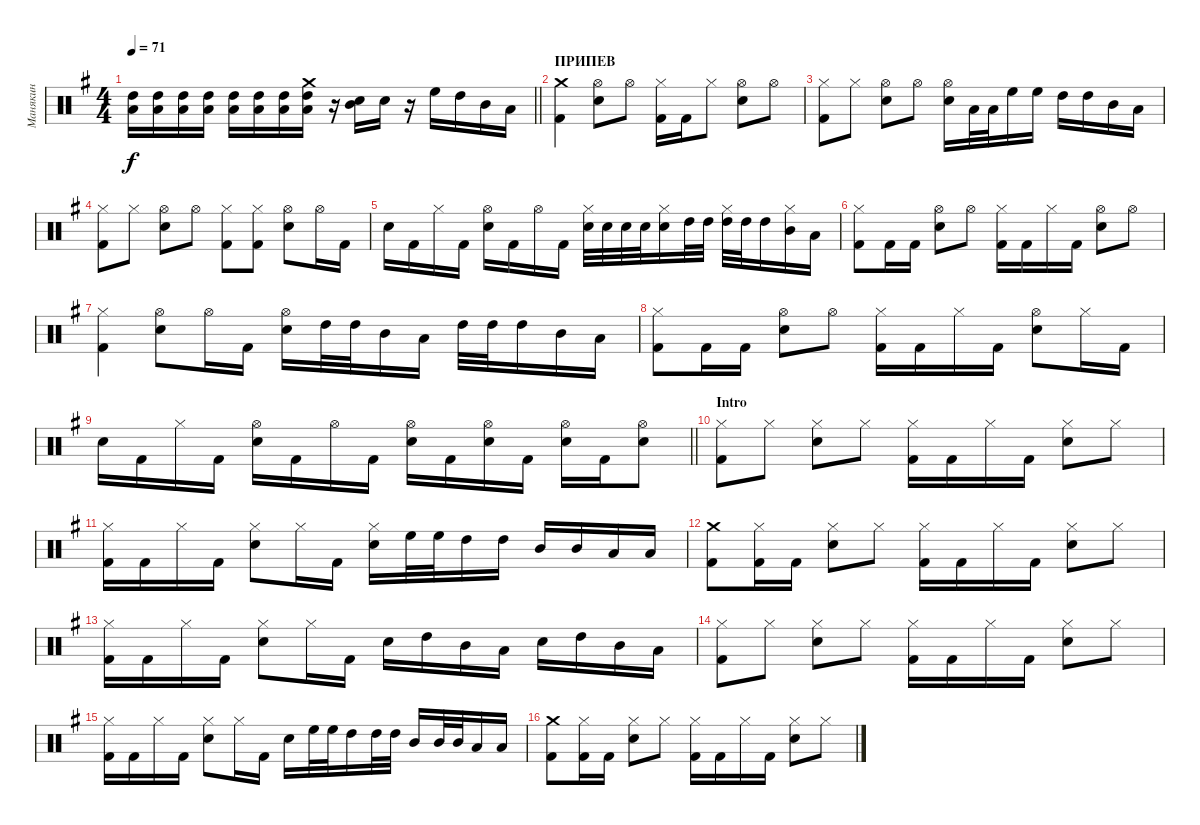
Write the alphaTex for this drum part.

\track ("Манякин" "Манякин") {instrument percussion}
\staff {score}
\articulation defaults
\ts (4 4)
\tempo 71
\clef neutral
\barLineRight lightlight
\ks eminor
("Low Tom (hit)" "High Tom (hit)").16{dy f} ("Low Tom (hit)" "High Tom (hit)").16 ("Low Tom (hit)" "High Tom (hit)").16 ("Low Tom (hit)" "High Tom (hit)").16 ("Low Tom (hit)" "High Tom (hit)").16 ("Low Tom (hit)" "High Tom (hit)").16 ("Low Tom (hit)" "High Tom (hit)").16 ("Crash medium (hit)" "Low Tom (hit)" "High Tom (hit)").16 r.16 ("Mid Tom (hit)" "Snare (hit) 2").16 "Snare (hit) 2".16 r.16 "High Floor Tom (hit)".16 "High Tom (hit)".16 "Mid Tom (hit)".16 "Low Tom (hit)".16 |
\section ("" "ПРИПЕВ")
("Crash medium (hit)" "Kick (hit) 2").4 ("Hi-Hat (open)" "Snare (hit) 2").8 "Hi-Hat (open)".8 ("Hi-Hat (closed)" "Kick (hit) 2").16 "Kick (hit) 2".16 "Hi-Hat (closed)".8 ("Hi-Hat (open)" "Snare (hit) 2").8 "Hi-Hat (open)".8 |
("Hi-Hat (closed)" "Kick (hit) 2").8 "Hi-Hat (closed)".8 ("Hi-Hat (open)" "Snare (hit) 2").8 "Hi-Hat (open)".8 ("Hi-Hat (open)" "Snare (hit) 2").16 "Low Tom (hit)".32 "Low Tom (hit)".32 "High Floor Tom (hit)".16 "High Floor Tom (hit)".16 "High Tom (hit)".16 "High Tom (hit)".16 "Mid Tom (hit)".16 "Low Tom (hit)".16 |
("Hi-Hat (closed)" "Kick (hit) 2").8 "Hi-Hat (closed)".8 ("Hi-Hat (open)" "Snare (hit) 2").8 "Hi-Hat (open)".8 ("Hi-Hat (closed)" "Kick (hit) 2").8 ("Hi-Hat (closed)" "Kick (hit) 2").8 ("Hi-Hat (open)" "Snare (hit) 2").8 "Hi-Hat (open)".16 "Kick (hit) 2".16 |
"Snare (hit) 2".16 "Kick (hit) 2".16 "Hi-Hat (closed)".16 "Kick (hit) 2".16 ("Hi-Hat (open)" "Snare (hit) 2").16 "Kick (hit) 2".16 "Hi-Hat (open)".16 "Kick (hit) 2".16 ("Hi-Hat (closed)" "Snare (hit) 2").32 "Snare (hit) 2".32 "Snare (hit) 2".32 "Snare (hit) 2".32 ("Hi-Hat (closed)" "Snare (hit) 2").16 "High Tom (hit)".32 "High Tom (hit)".32 ("Hi-Hat (closed)" "High Tom (hit)").32 "High Tom (hit)".32 "High Tom (hit)".16 ("Hi-Hat (closed)" "Mid Tom (hit)").16 "Low Tom (hit)".16 |
("Hi-Hat (closed)" "Kick (hit) 2").8 "Kick (hit) 2".16 "Kick (hit) 2".16 ("Hi-Hat (open)" "Snare (hit) 2").8 "Hi-Hat (open)".8 ("Hi-Hat (closed)" "Kick (hit) 2").16 "Kick (hit) 2".16 "Hi-Hat (closed)".16 "Kick (hit) 2".16 ("Hi-Hat (open)" "Snare (hit) 2").8 "Hi-Hat (open)".8 |
("Hi-Hat (closed)" "Kick (hit) 2").4 ("Hi-Hat (open)" "Snare (hit) 2").8 "Hi-Hat (open)".16 "Kick (hit) 2".16 ("Hi-Hat (open)" "Snare (hit) 2").16 "High Tom (hit)".32 "High Tom (hit)".32 "Mid Tom (hit)".16 "Low Tom (hit)".16 "High Tom (hit)".32 "High Tom (hit)".32 "High Tom (hit)".16 "Mid Tom (hit)".16 "Low Tom (hit)".16 |
("Hi-Hat (closed)" "Kick (hit) 2").8 "Kick (hit) 2".16 "Kick (hit) 2".16 ("Hi-Hat (open)" "Snare (hit) 2").8 "Hi-Hat (open)".8 ("Hi-Hat (closed)" "Kick (hit) 2").16 "Kick (hit) 2".16 "Hi-Hat (closed)".16 "Kick (hit) 2".16 ("Hi-Hat (open)" "Snare (hit) 2").8 "Hi-Hat (closed)".16 "Kick (hit) 2".16 |
\barLineRight lightlight "Snare (hit) 2".16 "Kick (hit) 2".16 "Hi-Hat (closed)".16 "Kick (hit) 2".16
("Hi-Hat (open)" "Snare (hit) 2").16 "Kick (hit) 2".16 "Hi-Hat (open)".16 "Kick (hit) 2".16 ("Hi-Hat (open)" "Snare (hit) 2").16 "Kick (hit) 2".16 ("Hi-Hat (open)" "Snare (hit) 2").16 "Kick (hit) 2".16 ("Hi-Hat (open)" "Snare (hit) 2").16 "Kick (hit) 2".16 ("Hi-Hat (open)" "Snare (hit) 2").8 |
\section ("" "Intro")
("Hi-Hat (closed)" "Kick (hit) 2").8 "Hi-Hat (closed)".8 ("Hi-Hat (closed)" "Snare (hit) 2").8 "Hi-Hat (closed)".8 ("Hi-Hat (closed)" "Kick (hit) 2").16 "Kick (hit) 2".16 "Hi-Hat (closed)".16 "Kick (hit) 2".16 ("Hi-Hat (closed)" "Snare (hit) 2").8 "Hi-Hat (closed)".8 |
("Hi-Hat (closed)" "Kick (hit) 2").16 "Kick (hit) 2".16 "Hi-Hat (closed)".16 "Kick (hit) 2".16 ("Hi-Hat (closed)" "Snare (hit) 2").8 "Hi-Hat (closed)".16 "Kick (hit) 2".16 ("Hi-Hat (closed)" "Snare (hit) 2").16 "High Floor Tom (hit)".32 "High Floor Tom (hit)".32 "High Tom (hit)".16 "High Tom (hit)".16 "Mid Tom (hit)".16 "Mid Tom (hit)".16 "Low Tom (hit)".16 "Low Tom (hit)".16 |
("Crash medium (hit)" "Kick (hit) 2").8 ("Hi-Hat (closed)" "Kick (hit) 2").16 "Kick (hit) 2".16 ("Hi-Hat (closed)" "Snare (hit) 2").8 "Hi-Hat (closed)".8 ("Hi-Hat (closed)" "Kick (hit) 2").16 "Kick (hit) 2".16 "Hi-Hat (closed)".16 "Kick (hit) 2".16 ("Hi-Hat (closed)" "Snare (hit) 2").8 "Hi-Hat (closed)".8 |
("Hi-Hat (closed)" "Kick (hit) 2").16 "Kick (hit) 2".16 "Hi-Hat (closed)".16 "Kick (hit) 2".16 ("Hi-Hat (closed)" "Snare (hit) 2").8 "Hi-Hat (closed)".16 "Kick (hit) 2".16 "Snare (hit) 2".16 "High Tom (hit)".16 "Mid Tom (hit)".16 "Low Tom (hit)".16 "Snare (hit) 2".16 "High Tom (hit)".16 "Mid Tom (hit)".16 "Low Tom (hit)".16 |
("Hi-Hat (closed)" "Kick (hit) 2").8 "Hi-Hat (closed)".8 ("Hi-Hat (closed)" "Snare (hit) 2").8 "Hi-Hat (closed)".8 ("Hi-Hat (closed)" "Kick (hit) 2").16 "Kick (hit) 2".16 "Hi-Hat (closed)".16 "Kick (hit) 2".16 ("Hi-Hat (closed)" "Snare (hit) 2").8 "Hi-Hat (closed)".8 |
("Hi-Hat (closed)" "Kick (hit) 2").16 "Kick (hit) 2".16 "Hi-Hat (closed)".16 "Kick (hit) 2".16 ("Hi-Hat (closed)" "Snare (hit) 2").8 "Hi-Hat (closed)".16 "Kick (hit) 2".16 "Snare (hit) 2".16 "High Floor Tom (hit)".32 "High Floor Tom (hit)".32 "High Tom (hit)".16 "High Tom (hit)".32 "High Tom (hit)".32 "Mid Tom (hit)".16 "Mid Tom (hit)".32 "Mid Tom (hit)".32 "Low Tom (hit)".16 "Low Tom (hit)".16 |
("Crash medium (hit)" "Kick (hit) 2").8 ("Hi-Hat (closed)" "Kick (hit) 2").16 "Kick (hit) 2".16 ("Hi-Hat (closed)" "Snare (hit) 2").8 "Hi-Hat (closed)".8 ("Hi-Hat (closed)" "Kick (hit) 2").16 "Kick (hit) 2".16 "Hi-Hat (closed)".16 "Kick (hit) 2".16 ("Hi-Hat (closed)" "Snare (hit) 2").8 "Hi-Hat (closed)".8
